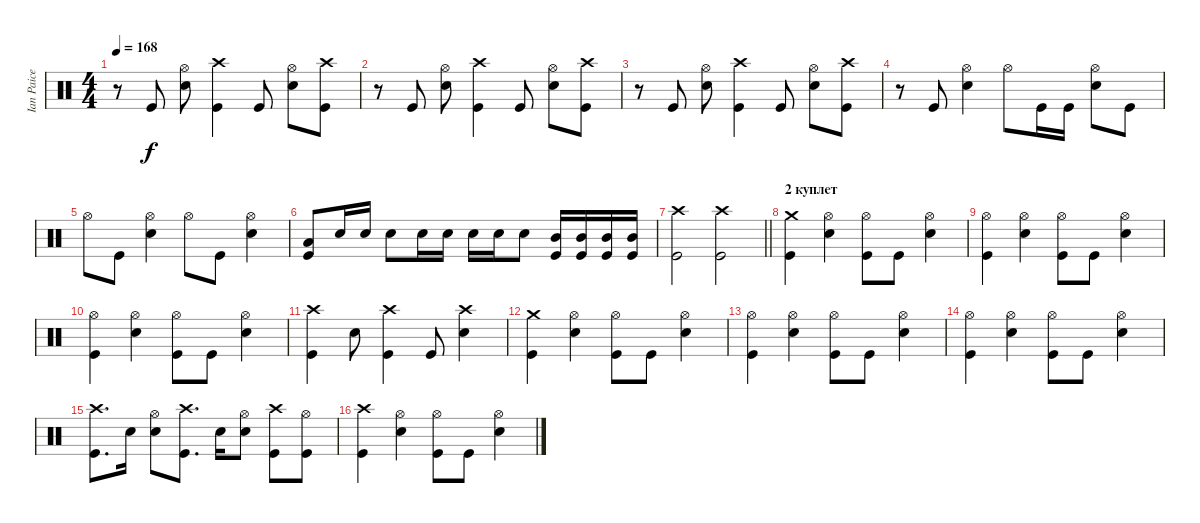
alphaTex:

\track ("Ian Paice" "Ian Paice") {instrument percussion}
\staff {score}
\articulation defaults
\ts (4 4)
\tempo 168
\clef neutral
\ks c
r.8{dy f} "Kick (hit)".8 ("Snare (hit) 2" "Hi-Hat (open)").8 ("Kick (hit)" "Crash high (hit)").4 "Kick (hit)".8 ("Hi-Hat (open)" "Snare (hit) 2").8 ("Crash high (hit)" "Kick (hit)").8 |
r.8 "Kick (hit)".8 ("Hi-Hat (open)" "Snare (hit) 2").8 ("Crash high (hit)" "Kick (hit)").4 "Kick (hit)".8 ("Hi-Hat (open)" "Snare (hit) 2").8 ("Crash high (hit)" "Kick (hit)").8 |
r.8 "Kick (hit)".8 ("Snare (hit) 2" "Hi-Hat (open)").8 ("Crash high (hit)" "Kick (hit)").4 "Kick (hit)".8 ("Hi-Hat (open)" "Snare (hit) 2").8 ("Crash high (hit)" "Kick (hit)").8 |
r.8 "Kick (hit)".8 ("Snare (hit) 2" "Hi-Hat (open)").4 "Hi-Hat (open)".8 "Kick (hit)".16 "Kick (hit)".16 ("Snare (hit) 2" "Hi-Hat (open)").8 "Kick (hit)".8 |
"Hi-Hat (open)".8 "Kick (hit)".8 ("Snare (hit) 2" "Hi-Hat (open)").4 "Hi-Hat (open)".8 "Kick (hit)".8 ("Snare (hit) 2" "Hi-Hat (open)").4 |
("Kick (hit)" "Low Tom (hit)").8 "Snare (hit) 2".16 "Snare (hit) 2".16 "Snare (hit) 2".8 "Snare (hit) 2".16 "Snare (hit) 2".16 "Snare (hit) 2".16 "Snare (hit) 2".16 "Snare (hit) 2".8 ("Mid Tom (hit)" "Kick (hit)").16 ("Mid Tom (hit)" "Kick (hit)").16 ("Mid Tom (hit)" "Kick (hit)").16 ("Mid Tom (hit)" "Kick (hit)").16 |
\barLineRight lightlight
("Crash high (hit)" "Kick (hit)").2 ("Crash high (hit)" "Kick (hit)").2 |
\section ("" "2 куплет")
("Kick (hit)" "Crash medium (hit)").4 ("Snare (hit) 2" "Hi-Hat (open)").4 ("Kick (hit)" "Hi-Hat (open)").8 "Kick (hit)".8 ("Hi-Hat (open)" "Snare (hit) 2").4 |
("Hi-Hat (open)" "Kick (hit)").4 ("Hi-Hat (open)" "Snare (hit) 2").4 ("Hi-Hat (open)" "Kick (hit)").8 "Kick (hit)".8 ("Snare (hit) 2" "Hi-Hat (open)").4 |
("Hi-Hat (open)" "Kick (hit)").4 ("Hi-Hat (open)" "Snare (hit) 2").4 ("Hi-Hat (open)" "Kick (hit)").8 "Kick (hit)".8 ("Snare (hit) 2" "Hi-Hat (open)").4 |
("Kick (hit)" "Crash high (hit)").4 "Snare (hit) 2".8 ("Kick (hit)" "Crash high (hit)").4 "Kick (hit)".8 ("Snare (hit) 2" "Crash high (hit)").4 |
("Kick (hit)" "Crash medium (hit)").4 ("Hi-Hat (open)" "Snare (hit) 2").4 ("Hi-Hat (open)" "Kick (hit)").8 "Kick (hit)".8 ("Hi-Hat (open)" "Snare (hit) 2").4 |
("Kick (hit)" "Hi-Hat (open)").4 ("Snare (hit) 2" "Hi-Hat (open)").4 ("Kick (hit)" "Hi-Hat (open)").8 "Kick (hit)".8 ("Hi-Hat (open)" "Snare (hit) 2").4 |
("Kick (hit)" "Hi-Hat (open)").4 ("Hi-Hat (open)" "Snare (hit) 2").4 ("Hi-Hat (open)" "Kick (hit)").8 "Kick (hit)".8 ("Hi-Hat (open)" "Snare (hit) 2").4 |
("Crash high (hit)" "Kick (hit)").8{d} "Snare (hit) 2".16 ("Hi-Hat (open)" "Snare (hit) 2").8 ("Crash high (hit)" "Kick (hit)").8{d} "Snare (hit) 2".16 ("Hi-Hat (open)" "Snare (hit) 2").8 ("Crash high (hit)" "Kick (hit)").8 ("Hi-Hat (open)" "Kick (hit)").8 |
("Crash high (hit)" "Kick (hit)").4 ("Snare (hit) 2" "Hi-Hat (open)").4 ("Hi-Hat (open)" "Kick (hit)").8 "Kick (hit)".8 ("Hi-Hat (open)" "Snare (hit) 2").4
